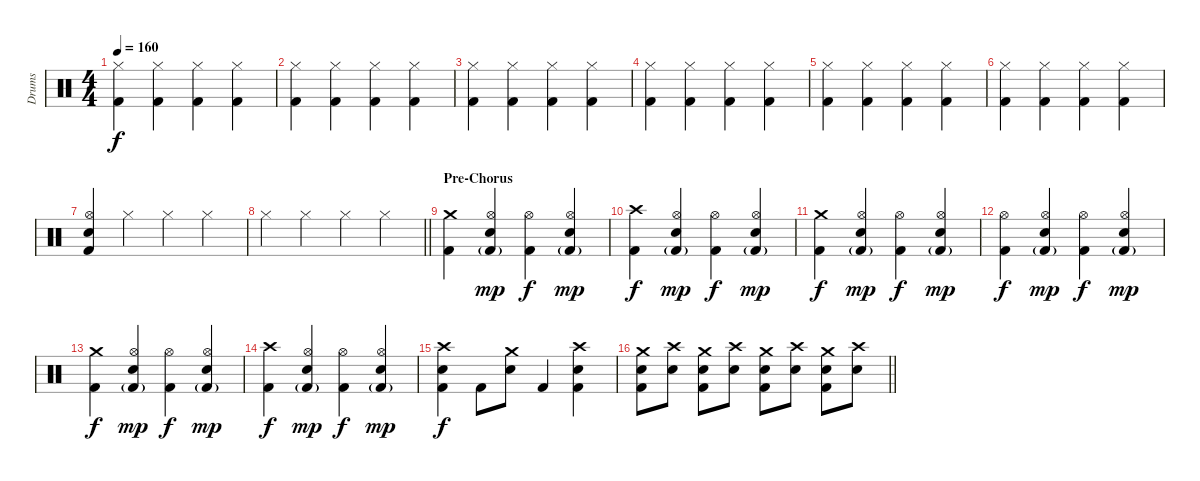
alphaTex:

\track ("Drums" "Drums") {instrument percussion}
\staff {score}
\articulation defaults
\ts (4 4)
\tempo 160
\clef neutral
\ks c
("Hi-Hat (closed)" "Kick (hit) 2").4{dy f} ("Hi-Hat (closed)" "Kick (hit) 2").4 ("Hi-Hat (closed)" "Kick (hit) 2").4 ("Hi-Hat (closed)" "Kick (hit) 2").4 |
("Hi-Hat (closed)" "Kick (hit) 2").4 ("Hi-Hat (closed)" "Kick (hit) 2").4 ("Hi-Hat (closed)" "Kick (hit) 2").4 ("Hi-Hat (closed)" "Kick (hit) 2").4 |
("Hi-Hat (closed)" "Kick (hit) 2").4 ("Hi-Hat (closed)" "Kick (hit) 2").4 ("Hi-Hat (closed)" "Kick (hit) 2").4 ("Hi-Hat (closed)" "Kick (hit) 2").4 |
("Hi-Hat (closed)" "Kick (hit) 2").4 ("Hi-Hat (closed)" "Kick (hit) 2").4 ("Hi-Hat (closed)" "Kick (hit) 2").4 ("Hi-Hat (closed)" "Kick (hit) 2").4 |
("Hi-Hat (closed)" "Kick (hit) 2").4 ("Hi-Hat (closed)" "Kick (hit) 2").4 ("Hi-Hat (closed)" "Kick (hit) 2").4 ("Hi-Hat (closed)" "Kick (hit) 2").4 |
("Hi-Hat (closed)" "Kick (hit) 2").4 ("Hi-Hat (closed)" "Kick (hit) 2").4 ("Hi-Hat (closed)" "Kick (hit) 2").4 ("Hi-Hat (closed)" "Kick (hit) 2").4 |
("Hi-Hat (open)" "Electric Snare (hit)" "Kick (hit) 2").4 "Hi-Hat (closed)".4 "Hi-Hat (closed)".4 "Hi-Hat (closed)".4 |
\barLineRight lightlight "Hi-Hat (closed)".4 "Hi-Hat (closed)".4 "Hi-Hat (closed)".4 "Hi-Hat (closed)".4
|
\section ("" "Pre-Chorus")
("Crash medium (hit)" "Kick (hit) 2").4 ("Hi-Hat (open)" "Electric Snare (hit)" "Kick (hit) 2"{g}).4{dy mp} ("Hi-Hat (open)" "Kick (hit) 2").4{dy f} ("Hi-Hat (open)" "Electric Snare (hit)" "Kick (hit) 2"{g}).4{dy mp} |
("Crash high (hit)" "Kick (hit) 2").4{dy f} ("Hi-Hat (open)" "Electric Snare (hit)" "Kick (hit) 2"{g}).4{dy mp} ("Hi-Hat (open)" "Kick (hit) 2").4{dy f} ("Hi-Hat (open)" "Electric Snare (hit)" "Kick (hit) 2"{g}).4{dy mp} |
("Crash medium (hit)" "Kick (hit) 2").4{dy f} ("Hi-Hat (open)" "Electric Snare (hit)" "Kick (hit) 2"{g}).4{dy mp} ("Hi-Hat (open)" "Kick (hit) 2").4{dy f} ("Hi-Hat (open)" "Electric Snare (hit)" "Kick (hit) 2"{g}).4{dy mp} |
("Hi-Hat (open)" "Kick (hit) 2").4{dy f} ("Hi-Hat (open)" "Electric Snare (hit)" "Kick (hit) 2"{g}).4{dy mp} ("Hi-Hat (open)" "Kick (hit) 2").4{dy f} ("Hi-Hat (open)" "Electric Snare (hit)" "Kick (hit) 2"{g}).4{dy mp} |
("Crash medium (hit)" "Kick (hit) 2").4{dy f} ("Hi-Hat (open)" "Electric Snare (hit)" "Kick (hit) 2"{g}).4{dy mp} ("Hi-Hat (open)" "Kick (hit) 2").4{dy f} ("Hi-Hat (open)" "Electric Snare (hit)" "Kick (hit) 2"{g}).4{dy mp} |
("Crash high (hit)" "Kick (hit) 2").4{dy f} ("Hi-Hat (open)" "Electric Snare (hit)" "Kick (hit) 2"{g}).4{dy mp} ("Hi-Hat (open)" "Kick (hit) 2").4{dy f} ("Hi-Hat (open)" "Electric Snare (hit)" "Kick (hit) 2"{g}).4{dy mp} |
("Crash high (hit)" "Electric Snare (hit)" "Kick (hit) 2").4{dy f} "Kick (hit) 2".8 ("Crash medium (hit)" "Electric Snare (hit)").8 "Kick (hit) 2".4 ("Crash high (hit)" "Electric Snare (hit)" "Kick (hit) 2").4 |
\barLineRight lightlight
("Crash medium (hit)" "Electric Snare (hit)" "Kick (hit) 2").8 ("Crash high (hit)" "Electric Snare (hit)").8 ("Crash medium (hit)" "Electric Snare (hit)" "Kick (hit) 2").8 ("Crash high (hit)" "Electric Snare (hit)").8 ("Crash medium (hit)" "Electric Snare (hit)" "Kick (hit) 2").8 ("Crash high (hit)" "Electric Snare (hit)").8 ("Crash medium (hit)" "Electric Snare (hit)" "Kick (hit) 2").8 ("Crash high (hit)" "Electric Snare (hit)").8
